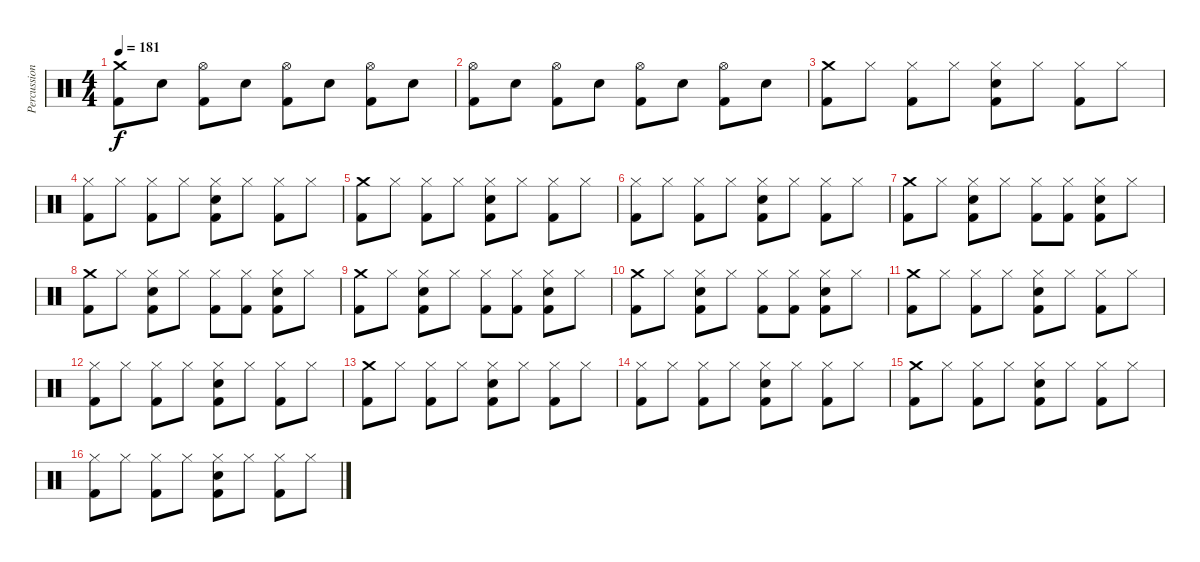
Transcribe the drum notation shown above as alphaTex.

\track ("Percussion" "Percussion") {instrument percussion}
\staff {score}
\articulation defaults
\ts (4 4)
\tempo 181
\clef neutral
\ks c
("Crash medium (hit)" "Kick (hit) 2").8{dy f} "Electric Snare (hit)".8 ("Hi-Hat (open)" "Kick (hit) 2").8 "Electric Snare (hit)".8 ("Hi-Hat (open)" "Kick (hit) 2").8 "Electric Snare (hit)".8 ("Hi-Hat (open)" "Kick (hit) 2").8 "Electric Snare (hit)".8 |
("Hi-Hat (open)" "Kick (hit) 2").8 "Electric Snare (hit)".8 ("Hi-Hat (open)" "Kick (hit) 2").8 "Electric Snare (hit)".8 ("Hi-Hat (open)" "Kick (hit) 2").8 "Electric Snare (hit)".8 ("Hi-Hat (open)" "Kick (hit) 2").8 "Electric Snare (hit)".8 |
("Crash medium (hit)" "Kick (hit) 2").8 "Hi-Hat (closed)".8 ("Hi-Hat (closed)" "Kick (hit) 2").8 "Hi-Hat (closed)".8 ("Hi-Hat (closed)" "Electric Snare (hit)" "Kick (hit) 2").8 "Hi-Hat (closed)".8 ("Hi-Hat (closed)" "Kick (hit) 2").8 "Hi-Hat (closed)".8 |
("Hi-Hat (closed)" "Kick (hit) 2").8 "Hi-Hat (closed)".8 ("Hi-Hat (closed)" "Kick (hit) 2").8 "Hi-Hat (closed)".8 ("Hi-Hat (closed)" "Electric Snare (hit)" "Kick (hit) 2").8 "Hi-Hat (closed)".8 ("Hi-Hat (closed)" "Kick (hit) 2").8 "Hi-Hat (closed)".8 |
("Crash medium (hit)" "Kick (hit) 2").8 "Hi-Hat (closed)".8 ("Hi-Hat (closed)" "Kick (hit) 2").8 "Hi-Hat (closed)".8 ("Hi-Hat (closed)" "Electric Snare (hit)" "Kick (hit) 2").8 "Hi-Hat (closed)".8 ("Hi-Hat (closed)" "Kick (hit) 2").8 "Hi-Hat (closed)".8 |
("Hi-Hat (closed)" "Kick (hit) 2").8 "Hi-Hat (closed)".8 ("Hi-Hat (closed)" "Kick (hit) 2").8 "Hi-Hat (closed)".8 ("Hi-Hat (closed)" "Electric Snare (hit)" "Kick (hit) 2").8 "Hi-Hat (closed)".8 ("Hi-Hat (closed)" "Kick (hit) 2").8 "Hi-Hat (closed)".8 |
("Crash medium (hit)" "Kick (hit) 2").8 "Hi-Hat (closed)".8 ("Hi-Hat (closed)" "Electric Snare (hit)" "Kick (hit) 2").8 "Hi-Hat (closed)".8 ("Hi-Hat (closed)" "Kick (hit) 2").8 ("Hi-Hat (closed)" "Kick (hit) 2").8 ("Hi-Hat (closed)" "Electric Snare (hit)" "Kick (hit) 2").8 "Hi-Hat (closed)".8 |
("Crash medium (hit)" "Kick (hit) 2").8 "Hi-Hat (closed)".8 ("Hi-Hat (closed)" "Electric Snare (hit)" "Kick (hit) 2").8 "Hi-Hat (closed)".8 ("Hi-Hat (closed)" "Kick (hit) 2").8 ("Hi-Hat (closed)" "Kick (hit) 2").8 ("Hi-Hat (closed)" "Electric Snare (hit)" "Kick (hit) 2").8 "Hi-Hat (closed)".8 |
("Crash medium (hit)" "Kick (hit) 2").8 "Hi-Hat (closed)".8 ("Hi-Hat (closed)" "Electric Snare (hit)" "Kick (hit) 2").8 "Hi-Hat (closed)".8 ("Hi-Hat (closed)" "Kick (hit) 2").8 ("Hi-Hat (closed)" "Kick (hit) 2").8 ("Hi-Hat (closed)" "Electric Snare (hit)" "Kick (hit) 2").8 "Hi-Hat (closed)".8 |
("Crash medium (hit)" "Kick (hit) 2").8 "Hi-Hat (closed)".8 ("Hi-Hat (closed)" "Electric Snare (hit)" "Kick (hit) 2").8 "Hi-Hat (closed)".8 ("Hi-Hat (closed)" "Kick (hit) 2").8 ("Hi-Hat (closed)" "Kick (hit) 2").8 ("Hi-Hat (closed)" "Electric Snare (hit)" "Kick (hit) 2").8 "Hi-Hat (closed)".8 |
("Crash medium (hit)" "Kick (hit) 2").8 "Hi-Hat (closed)".8 ("Hi-Hat (closed)" "Kick (hit) 2").8 "Hi-Hat (closed)".8 ("Hi-Hat (closed)" "Electric Snare (hit)" "Kick (hit) 2").8 "Hi-Hat (closed)".8 ("Hi-Hat (closed)" "Kick (hit) 2").8 "Hi-Hat (closed)".8 |
("Hi-Hat (closed)" "Kick (hit) 2").8 "Hi-Hat (closed)".8 ("Hi-Hat (closed)" "Kick (hit) 2").8 "Hi-Hat (closed)".8 ("Hi-Hat (closed)" "Electric Snare (hit)" "Kick (hit) 2").8 "Hi-Hat (closed)".8 ("Hi-Hat (closed)" "Kick (hit) 2").8 "Hi-Hat (closed)".8 |
("Crash medium (hit)" "Kick (hit) 2").8 "Hi-Hat (closed)".8 ("Hi-Hat (closed)" "Kick (hit) 2").8 "Hi-Hat (closed)".8 ("Hi-Hat (closed)" "Electric Snare (hit)" "Kick (hit) 2").8 "Hi-Hat (closed)".8 ("Hi-Hat (closed)" "Kick (hit) 2").8 "Hi-Hat (closed)".8 |
("Hi-Hat (closed)" "Kick (hit) 2").8 "Hi-Hat (closed)".8 ("Hi-Hat (closed)" "Kick (hit) 2").8 "Hi-Hat (closed)".8 ("Hi-Hat (closed)" "Electric Snare (hit)" "Kick (hit) 2").8 "Hi-Hat (closed)".8 ("Hi-Hat (closed)" "Kick (hit) 2").8 "Hi-Hat (closed)".8 |
("Crash medium (hit)" "Kick (hit) 2").8 "Hi-Hat (closed)".8 ("Hi-Hat (closed)" "Kick (hit) 2").8 "Hi-Hat (closed)".8 ("Hi-Hat (closed)" "Electric Snare (hit)" "Kick (hit) 2").8 "Hi-Hat (closed)".8 ("Hi-Hat (closed)" "Kick (hit) 2").8 "Hi-Hat (closed)".8 |
("Hi-Hat (closed)" "Kick (hit) 2").8 "Hi-Hat (closed)".8 ("Hi-Hat (closed)" "Kick (hit) 2").8 "Hi-Hat (closed)".8 ("Hi-Hat (closed)" "Electric Snare (hit)" "Kick (hit) 2").8 "Hi-Hat (closed)".8 ("Hi-Hat (closed)" "Kick (hit) 2").8 "Hi-Hat (closed)".8
